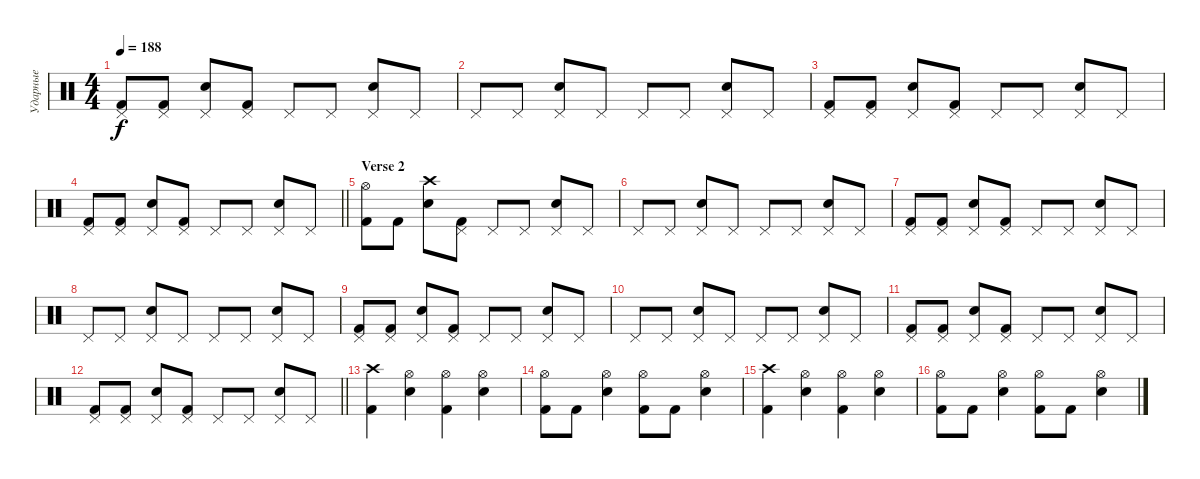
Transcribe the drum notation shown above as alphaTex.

\track ("Ударные" "Ударные") {instrument percussion}
\staff {score}
\articulation defaults
\ts (4 4)
\tempo 188
\clef neutral
\ks c
("Pedal Hi-Hat (hit)" "Kick (hit) 2").8{dy f} ("Pedal Hi-Hat (hit)" "Kick (hit) 2").8 ("Pedal Hi-Hat (hit)" "Electric Snare (hit)").8 ("Pedal Hi-Hat (hit)" "Kick (hit) 2").8 "Pedal Hi-Hat (hit)".8 "Pedal Hi-Hat (hit)".8 ("Pedal Hi-Hat (hit)" "Electric Snare (hit)").8 "Pedal Hi-Hat (hit)".8 |
"Pedal Hi-Hat (hit)".8 "Pedal Hi-Hat (hit)".8 ("Pedal Hi-Hat (hit)" "Electric Snare (hit)").8 "Pedal Hi-Hat (hit)".8 "Pedal Hi-Hat (hit)".8 "Pedal Hi-Hat (hit)".8 ("Pedal Hi-Hat (hit)" "Electric Snare (hit)").8 "Pedal Hi-Hat (hit)".8 |
("Pedal Hi-Hat (hit)" "Kick (hit) 2").8 ("Pedal Hi-Hat (hit)" "Kick (hit) 2").8 ("Pedal Hi-Hat (hit)" "Electric Snare (hit)").8 ("Pedal Hi-Hat (hit)" "Kick (hit) 2").8 "Pedal Hi-Hat (hit)".8 "Pedal Hi-Hat (hit)".8 ("Pedal Hi-Hat (hit)" "Electric Snare (hit)").8 "Pedal Hi-Hat (hit)".8 |
\barLineRight lightlight
("Pedal Hi-Hat (hit)" "Kick (hit) 2").8 ("Pedal Hi-Hat (hit)" "Kick (hit) 2").8 ("Pedal Hi-Hat (hit)" "Electric Snare (hit)").8 ("Pedal Hi-Hat (hit)" "Kick (hit) 2").8 "Pedal Hi-Hat (hit)".8 "Pedal Hi-Hat (hit)".8 ("Pedal Hi-Hat (hit)" "Electric Snare (hit)").8 "Pedal Hi-Hat (hit)".8 |
\section ("" "Verse 2")
("Hi-Hat (open)" "Kick (hit) 2").8 "Kick (hit) 2".8 ("Crash high (hit)" "Electric Snare (hit)").8 ("Pedal Hi-Hat (hit)" "Kick (hit) 2").8 "Pedal Hi-Hat (hit)".8 "Pedal Hi-Hat (hit)".8 ("Pedal Hi-Hat (hit)" "Electric Snare (hit)").8 "Pedal Hi-Hat (hit)".8 |
"Pedal Hi-Hat (hit)".8 "Pedal Hi-Hat (hit)".8 ("Pedal Hi-Hat (hit)" "Electric Snare (hit)").8 "Pedal Hi-Hat (hit)".8 "Pedal Hi-Hat (hit)".8 "Pedal Hi-Hat (hit)".8 ("Pedal Hi-Hat (hit)" "Electric Snare (hit)").8 "Pedal Hi-Hat (hit)".8 |
("Pedal Hi-Hat (hit)" "Kick (hit) 2").8 ("Pedal Hi-Hat (hit)" "Kick (hit) 2").8 ("Pedal Hi-Hat (hit)" "Electric Snare (hit)").8 ("Pedal Hi-Hat (hit)" "Kick (hit) 2").8 "Pedal Hi-Hat (hit)".8 "Pedal Hi-Hat (hit)".8 ("Pedal Hi-Hat (hit)" "Electric Snare (hit)").8 "Pedal Hi-Hat (hit)".8 |
"Pedal Hi-Hat (hit)".8 "Pedal Hi-Hat (hit)".8 ("Pedal Hi-Hat (hit)" "Electric Snare (hit)").8 "Pedal Hi-Hat (hit)".8 "Pedal Hi-Hat (hit)".8 "Pedal Hi-Hat (hit)".8 ("Pedal Hi-Hat (hit)" "Electric Snare (hit)").8 "Pedal Hi-Hat (hit)".8 |
("Pedal Hi-Hat (hit)" "Kick (hit) 2").8 ("Pedal Hi-Hat (hit)" "Kick (hit) 2").8 ("Pedal Hi-Hat (hit)" "Electric Snare (hit)").8 ("Pedal Hi-Hat (hit)" "Kick (hit) 2").8 "Pedal Hi-Hat (hit)".8 "Pedal Hi-Hat (hit)".8 ("Pedal Hi-Hat (hit)" "Electric Snare (hit)").8 "Pedal Hi-Hat (hit)".8 |
"Pedal Hi-Hat (hit)".8 "Pedal Hi-Hat (hit)".8 ("Pedal Hi-Hat (hit)" "Electric Snare (hit)").8 "Pedal Hi-Hat (hit)".8 "Pedal Hi-Hat (hit)".8 "Pedal Hi-Hat (hit)".8 ("Pedal Hi-Hat (hit)" "Electric Snare (hit)").8 "Pedal Hi-Hat (hit)".8 |
("Pedal Hi-Hat (hit)" "Kick (hit) 2").8 ("Pedal Hi-Hat (hit)" "Kick (hit) 2").8 ("Pedal Hi-Hat (hit)" "Electric Snare (hit)").8 ("Pedal Hi-Hat (hit)" "Kick (hit) 2").8 "Pedal Hi-Hat (hit)".8 "Pedal Hi-Hat (hit)".8 ("Pedal Hi-Hat (hit)" "Electric Snare (hit)").8 "Pedal Hi-Hat (hit)".8 |
\barLineRight lightlight
("Pedal Hi-Hat (hit)" "Kick (hit) 2").8 ("Pedal Hi-Hat (hit)" "Kick (hit) 2").8 ("Pedal Hi-Hat (hit)" "Electric Snare (hit)").8 ("Pedal Hi-Hat (hit)" "Kick (hit) 2").8 "Pedal Hi-Hat (hit)".8 "Pedal Hi-Hat (hit)".8 ("Pedal Hi-Hat (hit)" "Electric Snare (hit)").8 "Pedal Hi-Hat (hit)".8 |
("Crash high (hit)" "Kick (hit) 2").4 ("Hi-Hat (open)" "Electric Snare (hit)").4 ("Hi-Hat (open)" "Kick (hit) 2").4 ("Hi-Hat (open)" "Electric Snare (hit)").4 |
("Hi-Hat (open)" "Kick (hit) 2").8 "Kick (hit) 2".8 ("Hi-Hat (open)" "Electric Snare (hit)").4 ("Hi-Hat (open)" "Kick (hit) 2").8 "Kick (hit) 2".8 ("Hi-Hat (open)" "Electric Snare (hit)").4 |
("Crash high (hit)" "Kick (hit) 2").4 ("Hi-Hat (open)" "Electric Snare (hit)").4 ("Hi-Hat (open)" "Kick (hit) 2").4 ("Hi-Hat (open)" "Electric Snare (hit)").4 |
("Hi-Hat (open)" "Kick (hit) 2").8 "Kick (hit) 2".8 ("Hi-Hat (open)" "Electric Snare (hit)").4 ("Hi-Hat (open)" "Kick (hit) 2").8 "Kick (hit) 2".8 ("Hi-Hat (open)" "Electric Snare (hit)").4
